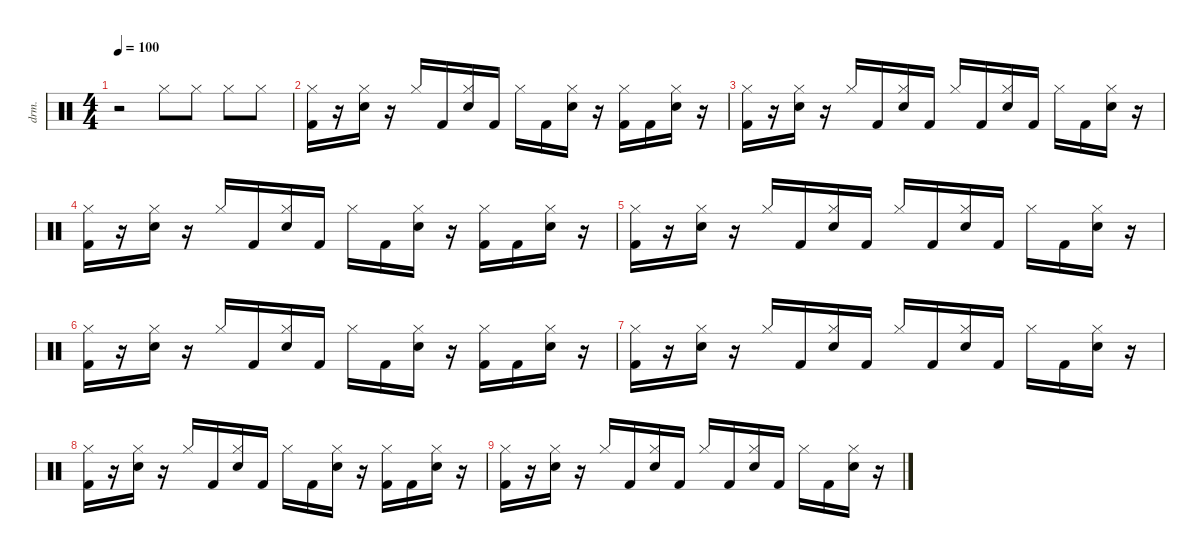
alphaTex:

\defaultSystemsLayout 4
\hideDynamics
\bracketExtendMode nobrackets
\otherSystemsTrackNameOrientation horizontal
\track ("Drumkit" "drm.") {instrument percussion}
\staff {score}
\articulation defaults
\ts (4 4)
\tempo 100
\clef neutral
\ks c
r.2{dy mf beam Down} "Hi-Hat (closed)".8{beam Down} "Hi-Hat (closed)".8{beam Down} "Hi-Hat (closed)".8{beam Down} "Hi-Hat (closed)".8{beam Down} |
("Hi-Hat (closed)" "Kick (hit) 2").16{beam Down} r.16{beam Down} ("Hi-Hat (closed)" "Snare (hit) 2").16{beam Down} r.16{beam Down} "Hi-Hat (closed)".16{beam Up} "Kick (hit) 2".16{beam Up} ("Hi-Hat (closed)" "Snare (hit) 2").16{beam Up} "Kick (hit) 2".16{beam Up} "Hi-Hat (closed)".16{beam Down} "Kick (hit) 2".16{beam Down} ("Hi-Hat (closed)" "Snare (hit) 2").16{beam Down} r.16{beam Down} ("Hi-Hat (closed)" "Kick (hit) 2").16{beam Down} "Kick (hit) 2".16{beam Down} ("Hi-Hat (closed)" "Snare (hit) 2").16{beam Down} r.16{beam Down} |
("Hi-Hat (closed)" "Kick (hit) 2").16{beam Down} r.16{beam Down} ("Hi-Hat (closed)" "Snare (hit) 2").16{beam Down} r.16{beam Down} "Hi-Hat (closed)".16{beam Up} "Kick (hit) 2".16{beam Up} ("Hi-Hat (closed)" "Snare (hit) 2").16{beam Up} "Kick (hit) 2".16{beam Up} "Hi-Hat (closed)".16{beam Up} "Kick (hit) 2".16{beam Up} ("Hi-Hat (closed)" "Snare (hit) 2").16{beam Up} "Kick (hit) 2".16{beam Up} "Hi-Hat (closed)".16{beam Down} "Kick (hit) 2".16{beam Down} ("Hi-Hat (closed)" "Snare (hit) 2").16{beam Down} r.16{beam Down} |
("Hi-Hat (closed)" "Kick (hit) 2").16{beam Down} r.16{beam Down} ("Hi-Hat (closed)" "Snare (hit) 2").16{beam Down} r.16{beam Down} "Hi-Hat (closed)".16{beam Up} "Kick (hit) 2".16{beam Up} ("Hi-Hat (closed)" "Snare (hit) 2").16{beam Up} "Kick (hit) 2".16{beam Up} "Hi-Hat (closed)".16{beam Down} "Kick (hit) 2".16{beam Down} ("Hi-Hat (closed)" "Snare (hit) 2").16{beam Down} r.16{beam Down} ("Hi-Hat (closed)" "Kick (hit) 2").16{beam Down} "Kick (hit) 2".16{beam Down} ("Hi-Hat (closed)" "Snare (hit) 2").16{beam Down} r.16{beam Down} |
("Hi-Hat (closed)" "Kick (hit) 2").16{beam Down} r.16{beam Down} ("Hi-Hat (closed)" "Snare (hit) 2").16{beam Down} r.16{beam Down} "Hi-Hat (closed)".16{beam Up} "Kick (hit) 2".16{beam Up} ("Hi-Hat (closed)" "Snare (hit) 2").16{beam Up} "Kick (hit) 2".16{beam Up} "Hi-Hat (closed)".16{beam Up} "Kick (hit) 2".16{beam Up} ("Hi-Hat (closed)" "Snare (hit) 2").16{beam Up} "Kick (hit) 2".16{beam Up} "Hi-Hat (closed)".16{beam Down} "Kick (hit) 2".16{beam Down} ("Hi-Hat (closed)" "Snare (hit) 2").16{beam Down} r.16{beam Down} |
("Hi-Hat (closed)" "Kick (hit) 2").16{beam Down} r.16{beam Down} ("Hi-Hat (closed)" "Snare (hit) 2").16{beam Down} r.16{beam Down} "Hi-Hat (closed)".16{beam Up} "Kick (hit) 2".16{beam Up} ("Hi-Hat (closed)" "Snare (hit) 2").16{beam Up} "Kick (hit) 2".16{beam Up} "Hi-Hat (closed)".16{beam Down} "Kick (hit) 2".16{beam Down} ("Hi-Hat (closed)" "Snare (hit) 2").16{beam Down} r.16{beam Down} ("Hi-Hat (closed)" "Kick (hit) 2").16{beam Down} "Kick (hit) 2".16{beam Down} ("Hi-Hat (closed)" "Snare (hit) 2").16{beam Down} r.16{beam Down} |
("Hi-Hat (closed)" "Kick (hit) 2").16{beam Down} r.16{beam Down} ("Hi-Hat (closed)" "Snare (hit) 2").16{beam Down} r.16{beam Down} "Hi-Hat (closed)".16{beam Up} "Kick (hit) 2".16{beam Up} ("Hi-Hat (closed)" "Snare (hit) 2").16{beam Up} "Kick (hit) 2".16{beam Up} "Hi-Hat (closed)".16{beam Up} "Kick (hit) 2".16{beam Up} ("Hi-Hat (closed)" "Snare (hit) 2").16{beam Up} "Kick (hit) 2".16{beam Up} "Hi-Hat (closed)".16{beam Down} "Kick (hit) 2".16{beam Down} ("Hi-Hat (closed)" "Snare (hit) 2").16{beam Down} r.16{beam Down} |
("Hi-Hat (closed)" "Kick (hit) 2").16{beam Down} r.16{beam Down} ("Hi-Hat (closed)" "Snare (hit) 2").16{beam Down} r.16{beam Down} "Hi-Hat (closed)".16{beam Up} "Kick (hit) 2".16{beam Up} ("Hi-Hat (closed)" "Snare (hit) 2").16{beam Up} "Kick (hit) 2".16{beam Up} "Hi-Hat (closed)".16{beam Down} "Kick (hit) 2".16{beam Down} ("Hi-Hat (closed)" "Snare (hit) 2").16{beam Down} r.16{beam Down} ("Hi-Hat (closed)" "Kick (hit) 2").16{beam Down} "Kick (hit) 2".16{beam Down} ("Hi-Hat (closed)" "Snare (hit) 2").16{beam Down} r.16{beam Down} |
("Hi-Hat (closed)" "Kick (hit) 2").16{beam Down} r.16{beam Down} ("Hi-Hat (closed)" "Snare (hit) 2").16{beam Down} r.16{beam Down} "Hi-Hat (closed)".16{beam Up} "Kick (hit) 2".16{beam Up} ("Hi-Hat (closed)" "Snare (hit) 2").16{beam Up} "Kick (hit) 2".16{beam Up} "Hi-Hat (closed)".16{beam Up} "Kick (hit) 2".16{beam Up} ("Hi-Hat (closed)" "Snare (hit) 2").16{beam Up} "Kick (hit) 2".16{beam Up} "Hi-Hat (closed)".16{beam Down} "Kick (hit) 2".16{beam Down} ("Hi-Hat (closed)" "Snare (hit) 2").16{beam Down} r.16{beam Down}
